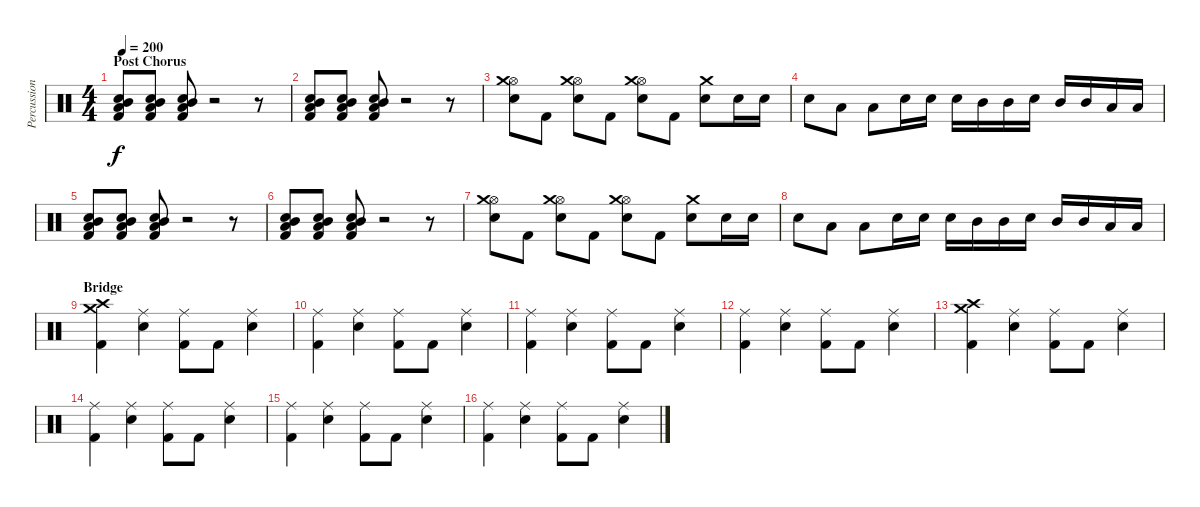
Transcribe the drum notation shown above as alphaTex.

\track ("Percussion" "Percussion") {instrument percussion}
\staff {score}
\articulation defaults
\ts (4 4)
\section ("" "Post Chorus")
\tempo 200
\clef neutral
\ks c
("Low Floor Tom (hit)" "Mid Tom (hit)" "Snare (hit) 2" "Kick (hit) 2").8{dy f} ("Low Floor Tom (hit)" "Mid Tom (hit)" "Snare (hit) 2" "Kick (hit) 2").8 ("Low Floor Tom (hit)" "Mid Tom (hit)" "Snare (hit) 2" "Kick (hit) 2").8 r.2 r.8 |
("Low Floor Tom (hit)" "Mid Tom (hit)" "Snare (hit) 2" "Kick (hit) 2").8 ("Low Floor Tom (hit)" "Mid Tom (hit)" "Snare (hit) 2" "Kick (hit) 2").8 ("Low Floor Tom (hit)" "Mid Tom (hit)" "Snare (hit) 2" "Kick (hit) 2").8 r.2 r.8 |
("Hi-Hat (open)" "Electric Snare (hit)" "Crash medium (hit)").8 "Kick (hit) 2".8 ("Hi-Hat (open)" "Electric Snare (hit)" "Crash medium (hit)").8 "Kick (hit) 2".8 ("Hi-Hat (open)" "Electric Snare (hit)" "Crash medium (hit)").8 "Kick (hit) 2".8 ("Electric Snare (hit)" "Crash medium (hit)").8 "Electric Snare (hit)".16 "Electric Snare (hit)".16 |
"Electric Snare (hit)".8 "Low Floor Tom (hit)".8 "Low Floor Tom (hit)".8 "Electric Snare (hit)".16 "Electric Snare (hit)".16 "Electric Snare (hit)".16 "Mid Tom (hit)".16 "Mid Tom (hit)".16 "Electric Snare (hit)".16 "Mid Tom (hit)".16 "Mid Tom (hit)".16 "Low Floor Tom (hit)".16 "Low Floor Tom (hit)".16 |
("Low Floor Tom (hit)" "Mid Tom (hit)" "Snare (hit) 2" "Kick (hit) 2").8 ("Low Floor Tom (hit)" "Mid Tom (hit)" "Snare (hit) 2" "Kick (hit) 2").8 ("Low Floor Tom (hit)" "Mid Tom (hit)" "Snare (hit) 2" "Kick (hit) 2").8 r.2 r.8 |
("Low Floor Tom (hit)" "Mid Tom (hit)" "Snare (hit) 2" "Kick (hit) 2").8 ("Low Floor Tom (hit)" "Mid Tom (hit)" "Snare (hit) 2" "Kick (hit) 2").8 ("Low Floor Tom (hit)" "Mid Tom (hit)" "Snare (hit) 2" "Kick (hit) 2").8 r.2 r.8 |
("Hi-Hat (open)" "Electric Snare (hit)" "Crash medium (hit)").8 "Kick (hit) 2".8 ("Hi-Hat (open)" "Electric Snare (hit)" "Crash medium (hit)").8 "Kick (hit) 2".8 ("Hi-Hat (open)" "Electric Snare (hit)" "Crash medium (hit)").8 "Kick (hit) 2".8 ("Electric Snare (hit)" "Crash medium (hit)").8 "Electric Snare (hit)".16 "Electric Snare (hit)".16 |
"Electric Snare (hit)".8 "Low Floor Tom (hit)".8 "Low Floor Tom (hit)".8 "Electric Snare (hit)".16 "Electric Snare (hit)".16 "Electric Snare (hit)".16 "Mid Tom (hit)".16 "Mid Tom (hit)".16 "Electric Snare (hit)".16 "Mid Tom (hit)".16 "Mid Tom (hit)".16 "Low Floor Tom (hit)".16 "Low Floor Tom (hit)".16 |
\section ("" "Bridge")
("Crash medium (hit)" "Crash high (hit)" "Kick (hit) 2").4 ("Ride (middle)" "Electric Snare (hit)").4 ("Ride (middle)" "Kick (hit) 2").8 "Kick (hit) 2".8 ("Ride (middle)" "Electric Snare (hit)").4 |
("Ride (middle)" "Kick (hit) 2").4 ("Ride (middle)" "Electric Snare (hit)").4 ("Ride (middle)" "Kick (hit) 2").8 "Kick (hit) 2".8 ("Ride (middle)" "Electric Snare (hit)").4 |
("Ride (middle)" "Kick (hit) 2").4 ("Ride (middle)" "Electric Snare (hit)").4 ("Ride (middle)" "Kick (hit) 2").8 "Kick (hit) 2".8 ("Ride (middle)" "Electric Snare (hit)").4 |
("Ride (middle)" "Kick (hit) 2").4 ("Ride (middle)" "Electric Snare (hit)").4 ("Ride (middle)" "Kick (hit) 2").8 "Kick (hit) 2".8 ("Ride (middle)" "Electric Snare (hit)").4 |
("Crash medium (hit)" "Crash high (hit)" "Kick (hit) 2").4 ("Ride (middle)" "Electric Snare (hit)").4 ("Ride (middle)" "Kick (hit) 2").8 "Kick (hit) 2".8 ("Ride (middle)" "Electric Snare (hit)").4 |
("Ride (middle)" "Kick (hit) 2").4 ("Ride (middle)" "Electric Snare (hit)").4 ("Ride (middle)" "Kick (hit) 2").8 "Kick (hit) 2".8 ("Ride (middle)" "Electric Snare (hit)").4 |
("Ride (middle)" "Kick (hit) 2").4 ("Ride (middle)" "Electric Snare (hit)").4 ("Ride (middle)" "Kick (hit) 2").8 "Kick (hit) 2".8 ("Ride (middle)" "Electric Snare (hit)").4 |
("Ride (middle)" "Kick (hit) 2").4 ("Ride (middle)" "Electric Snare (hit)").4 ("Ride (middle)" "Kick (hit) 2").8 "Kick (hit) 2".8 ("Ride (middle)" "Electric Snare (hit)").4
